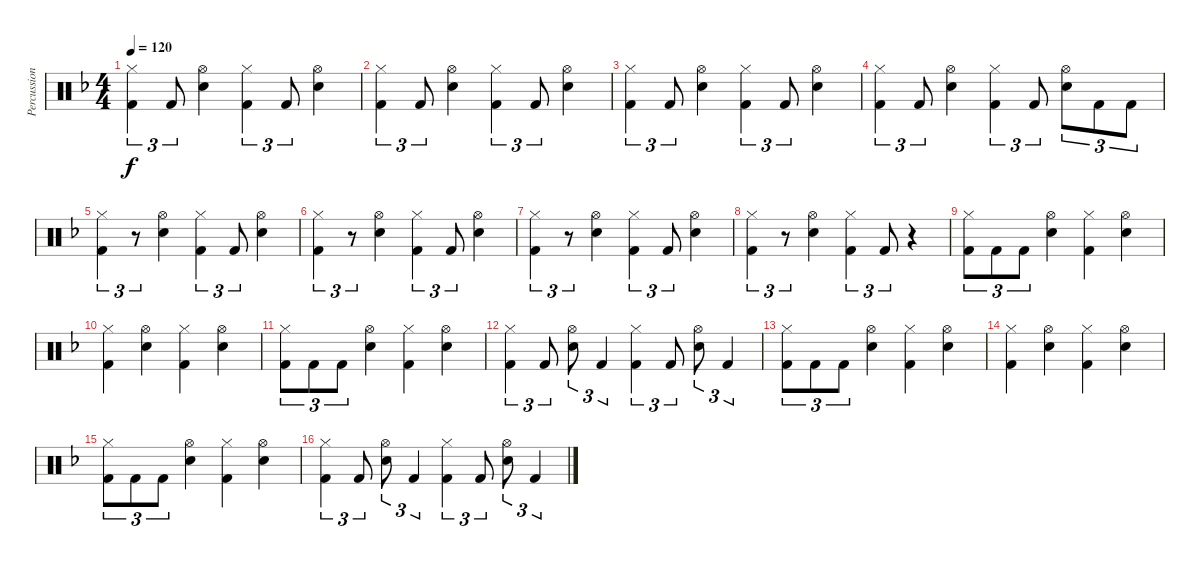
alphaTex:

\track ("Percussion" "Percussion") {instrument percussion}
\staff {score}
\articulation defaults
\ts (4 4)
\tempo 120
\clef neutral
\ks dminor
("Hi-Hat (closed)" "Kick (hit) 2").4{tu (3 2) dy f} "Kick (hit) 2".8{tu (3 2)} ("Hi-Hat (open)" "Electric Snare (hit)").4 ("Hi-Hat (closed)" "Kick (hit) 2").4{tu (3 2)} "Kick (hit) 2".8{tu (3 2)} ("Hi-Hat (open)" "Electric Snare (hit)").4 |
("Hi-Hat (closed)" "Kick (hit) 2").4{tu (3 2)} "Kick (hit) 2".8{tu (3 2)} ("Hi-Hat (open)" "Electric Snare (hit)").4 ("Hi-Hat (closed)" "Kick (hit) 2").4{tu (3 2)} "Kick (hit) 2".8{tu (3 2)} ("Hi-Hat (open)" "Electric Snare (hit)").4 |
("Hi-Hat (closed)" "Kick (hit) 2").4{tu (3 2)} "Kick (hit) 2".8{tu (3 2)} ("Hi-Hat (open)" "Electric Snare (hit)").4 ("Hi-Hat (closed)" "Kick (hit) 2").4{tu (3 2)} "Kick (hit) 2".8{tu (3 2)} ("Hi-Hat (open)" "Electric Snare (hit)").4 |
("Hi-Hat (closed)" "Kick (hit) 2").4{tu (3 2)} "Kick (hit) 2".8{tu (3 2)} ("Hi-Hat (open)" "Electric Snare (hit)").4 ("Hi-Hat (closed)" "Kick (hit) 2").4{tu (3 2)} "Kick (hit) 2".8{tu (3 2)} ("Hi-Hat (open)" "Electric Snare (hit)").8{tu (3 2)} "Kick (hit) 2".8{tu (3 2)} "Kick (hit) 2".8{tu (3 2)} |
("Hi-Hat (closed)" "Kick (hit) 2").4{tu (3 2)} r.8{tu (3 2)} ("Hi-Hat (open)" "Electric Snare (hit)").4 ("Hi-Hat (closed)" "Kick (hit) 2").4{tu (3 2)} "Kick (hit) 2".8{tu (3 2)} ("Hi-Hat (open)" "Electric Snare (hit)").4 |
("Hi-Hat (closed)" "Kick (hit) 2").4{tu (3 2)} r.8{tu (3 2)} ("Hi-Hat (open)" "Electric Snare (hit)").4 ("Hi-Hat (closed)" "Kick (hit) 2").4{tu (3 2)} "Kick (hit) 2".8{tu (3 2)} ("Hi-Hat (open)" "Electric Snare (hit)").4 |
("Hi-Hat (closed)" "Kick (hit) 2").4{tu (3 2)} r.8{tu (3 2)} ("Hi-Hat (open)" "Electric Snare (hit)").4 ("Hi-Hat (closed)" "Kick (hit) 2").4{tu (3 2)} "Kick (hit) 2".8{tu (3 2)} ("Hi-Hat (open)" "Electric Snare (hit)").4 |
("Hi-Hat (closed)" "Kick (hit) 2").4{tu (3 2)} r.8{tu (3 2)} ("Hi-Hat (open)" "Electric Snare (hit)").4 ("Hi-Hat (closed)" "Kick (hit) 2").4{tu (3 2)} "Kick (hit) 2".8{tu (3 2)} r.4 |
("Hi-Hat (closed)" "Kick (hit) 2").8{tu (3 2)} "Kick (hit) 2".8{tu (3 2)} "Kick (hit) 2".8{tu (3 2)} ("Hi-Hat (open)" "Electric Snare (hit)").4 ("Hi-Hat (closed)" "Kick (hit) 2").4 ("Hi-Hat (open)" "Electric Snare (hit)").4 |
("Hi-Hat (closed)" "Kick (hit) 2").4 ("Hi-Hat (open)" "Electric Snare (hit)").4 ("Hi-Hat (closed)" "Kick (hit) 2").4 ("Hi-Hat (open)" "Electric Snare (hit)").4 |
("Hi-Hat (closed)" "Kick (hit) 2").8{tu (3 2)} "Kick (hit) 2".8{tu (3 2)} "Kick (hit) 2".8{tu (3 2)} ("Hi-Hat (open)" "Electric Snare (hit)").4 ("Hi-Hat (closed)" "Kick (hit) 2").4 ("Hi-Hat (open)" "Electric Snare (hit)").4 |
("Hi-Hat (closed)" "Kick (hit) 2").4{tu (3 2)} "Kick (hit) 2".8{tu (3 2)} ("Hi-Hat (open)" "Electric Snare (hit)").8{tu (3 2)} "Kick (hit) 2".4{tu (3 2)} ("Hi-Hat (closed)" "Kick (hit) 2").4{tu (3 2)} "Kick (hit) 2".8{tu (3 2)} ("Hi-Hat (open)" "Electric Snare (hit)").8{tu (3 2)} "Kick (hit) 2".4{tu (3 2)} |
("Hi-Hat (closed)" "Kick (hit) 2").8{tu (3 2)} "Kick (hit) 2".8{tu (3 2)} "Kick (hit) 2".8{tu (3 2)} ("Hi-Hat (open)" "Electric Snare (hit)").4 ("Hi-Hat (closed)" "Kick (hit) 2").4 ("Hi-Hat (open)" "Electric Snare (hit)").4 |
("Hi-Hat (closed)" "Kick (hit) 2").4 ("Hi-Hat (open)" "Electric Snare (hit)").4 ("Hi-Hat (closed)" "Kick (hit) 2").4 ("Hi-Hat (open)" "Electric Snare (hit)").4 |
("Hi-Hat (closed)" "Kick (hit) 2").8{tu (3 2)} "Kick (hit) 2".8{tu (3 2)} "Kick (hit) 2".8{tu (3 2)} ("Hi-Hat (open)" "Electric Snare (hit)").4 ("Hi-Hat (closed)" "Kick (hit) 2").4 ("Hi-Hat (open)" "Electric Snare (hit)").4 |
("Hi-Hat (closed)" "Kick (hit) 2").4{tu (3 2)} "Kick (hit) 2".8{tu (3 2)} ("Hi-Hat (open)" "Electric Snare (hit)").8{tu (3 2)} "Kick (hit) 2".4{tu (3 2)} ("Hi-Hat (closed)" "Kick (hit) 2").4{tu (3 2)} "Kick (hit) 2".8{tu (3 2)} ("Hi-Hat (open)" "Electric Snare (hit)").8{tu (3 2)} "Kick (hit) 2".4{tu (3 2)}
